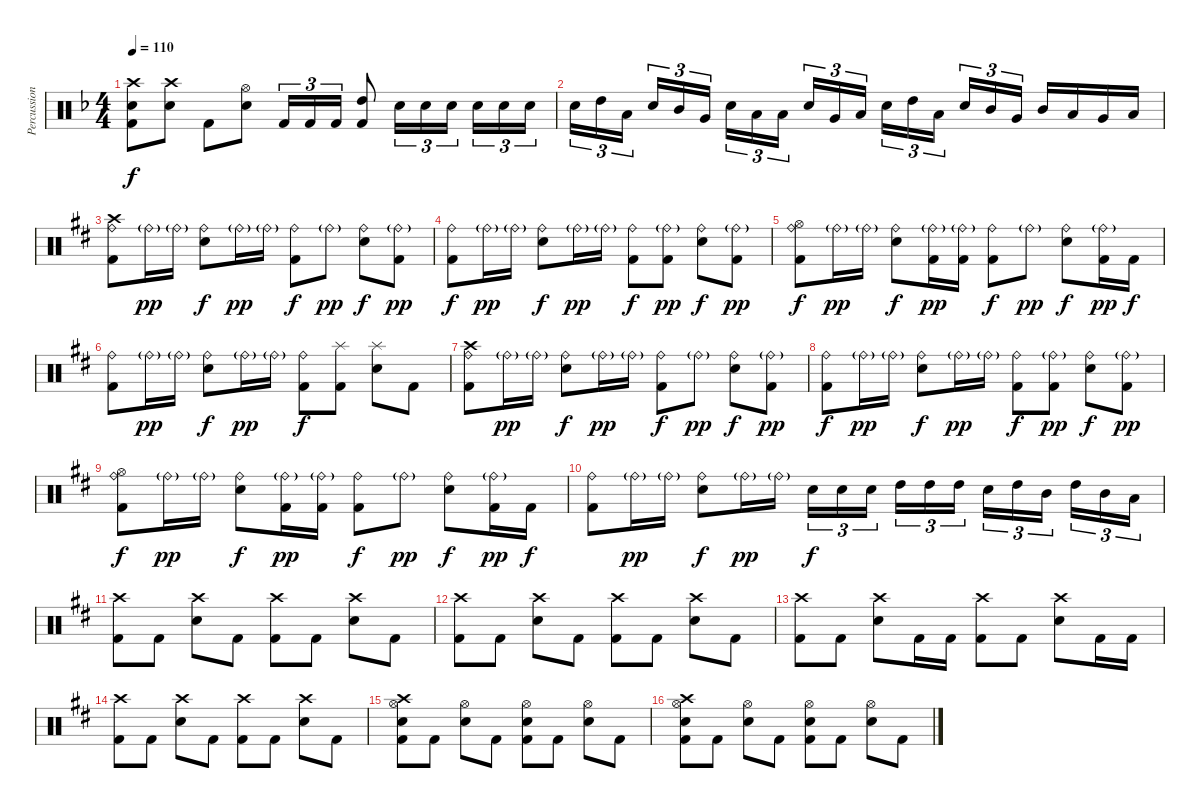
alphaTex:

\track ("Percussion" "Percussion") {instrument percussion}
\staff {score}
\articulation defaults
\ts (4 4)
\tempo 110
\clef neutral
\ks dminor
("Crash high (hit)" "Electric Snare (hit)" "Kick (hit) 2").8{dy f} ("Crash high (hit)" "Electric Snare (hit)").8 "Kick (hit) 2".8 ("Hi-Hat (open)" "Electric Snare (hit)").8 "Kick (hit) 2".16{tu (3 2)} "Kick (hit) 2".16{tu (3 2)} "Kick (hit) 2".16{tu (3 2)} ("High Tom (hit)" "Kick (hit) 2").8 "Electric Snare (hit)".16{tu (3 2)} "Electric Snare (hit)".16{tu (3 2)} "Electric Snare (hit)".16{tu (3 2)} "Electric Snare (hit)".16{tu (3 2)} "Electric Snare (hit)".16{tu (3 2)} "Electric Snare (hit)".16{tu (3 2)} |
"Electric Snare (hit)".16{tu (3 2)} "High Tom (hit)".16{tu (3 2)} "Low Tom (hit)".16{tu (3 2)} "Electric Snare (hit)".16{tu (3 2)} "Mid Tom (hit)".16{tu (3 2)} "Very Low Tom (hit)".16{tu (3 2)} "Electric Snare (hit)".16{tu (3 2)} "Low Tom (hit)".16{tu (3 2)} "Low Floor Tom (hit)".16{tu (3 2)} "Electric Snare (hit)".16{tu (3 2)} "Very Low Tom (hit)".16{tu (3 2)} "Low Floor Tom (hit)".16{tu (3 2)} "Electric Snare (hit)".16{tu (3 2)} "High Tom (hit)".16{tu (3 2)} "Low Tom (hit)".16{tu (3 2)} "Electric Snare (hit)".16{tu (3 2)} "Mid Tom (hit)".16{tu (3 2)} "Very Low Tom (hit)".16{tu (3 2)} "Mid Tom (hit)".16 "Low Tom (hit)".16 "Very Low Tom (hit)".16 "Low Floor Tom (hit)".16 |
\ks bminor
("Crash high (hit)" "Ride (bell)" "Kick (hit) 2").8 "Ride (bell)"{g}.16{dy pp} "Ride (bell)"{g}.16 ("Ride (bell)" "Electric Snare (hit)").8{dy f} "Ride (bell)"{g}.16{dy pp} "Ride (bell)"{g}.16 ("Ride (bell)" "Kick (hit) 2").8{dy f} "Ride (bell)"{g}.8{dy pp} ("Ride (bell)" "Electric Snare (hit)").8{dy f} ("Ride (bell)"{g} "Kick (hit) 2").8{dy pp} |
("Ride (bell)" "Kick (hit) 2").8{dy f} "Ride (bell)"{g}.16{dy pp} "Ride (bell)"{g}.16 ("Ride (bell)" "Electric Snare (hit)").8{dy f} "Ride (bell)"{g}.16{dy pp} "Ride (bell)"{g}.16 ("Ride (bell)" "Kick (hit) 2").8{dy f} ("Ride (bell)"{g} "Kick (hit) 2").8{dy pp} ("Ride (bell)" "Electric Snare (hit)").8{dy f} ("Ride (bell)"{g} "Kick (hit) 2").8{dy pp} |
("Hi-Hat (open)" "Ride (bell)" "Kick (hit) 2").8{dy f} "Ride (bell)"{g}.16{dy pp} "Ride (bell)"{g}.16 ("Ride (bell)" "Electric Snare (hit)").8{dy f} ("Ride (bell)"{g} "Kick (hit) 2").16{dy pp} ("Ride (bell)"{g} "Kick (hit) 2").16 ("Ride (bell)" "Kick (hit) 2").8{dy f} "Ride (bell)"{g}.8{dy pp} ("Ride (bell)" "Electric Snare (hit)").8{dy f} ("Ride (bell)"{g} "Kick (hit) 2").16{dy pp} "Kick (hit) 2".16{dy f} |
("Ride (bell)" "Kick (hit) 2").8 "Ride (bell)"{g}.16{dy pp} "Ride (bell)"{g}.16 ("Ride (bell)" "Electric Snare (hit)").8{dy f} "Ride (bell)"{g}.16{dy pp} "Ride (bell)"{g}.16 ("Ride (bell)" "Kick (hit) 2").8{dy f} ("Splash (hit)" "Kick (hit) 2").8 ("Splash (hit)" "Electric Snare (hit)").8 "Kick (hit) 2".8 |
("Crash high (hit)" "Ride (bell)" "Kick (hit) 2").8 "Ride (bell)"{g}.16{dy pp} "Ride (bell)"{g}.16 ("Ride (bell)" "Electric Snare (hit)").8{dy f} "Ride (bell)"{g}.16{dy pp} "Ride (bell)"{g}.16 ("Ride (bell)" "Kick (hit) 2").8{dy f} "Ride (bell)"{g}.8{dy pp} ("Ride (bell)" "Electric Snare (hit)").8{dy f} ("Ride (bell)"{g} "Kick (hit) 2").8{dy pp} |
("Ride (bell)" "Kick (hit) 2").8{dy f} "Ride (bell)"{g}.16{dy pp} "Ride (bell)"{g}.16 ("Ride (bell)" "Electric Snare (hit)").8{dy f} "Ride (bell)"{g}.16{dy pp} "Ride (bell)"{g}.16 ("Ride (bell)" "Kick (hit) 2").8{dy f} ("Ride (bell)"{g} "Kick (hit) 2").8{dy pp} ("Ride (bell)" "Electric Snare (hit)").8{dy f} ("Ride (bell)"{g} "Kick (hit) 2").8{dy pp} |
("Hi-Hat (open)" "Ride (bell)" "Kick (hit) 2").8{dy f} "Ride (bell)"{g}.16{dy pp} "Ride (bell)"{g}.16 ("Ride (bell)" "Electric Snare (hit)").8{dy f} ("Ride (bell)"{g} "Kick (hit) 2").16{dy pp} ("Ride (bell)"{g} "Kick (hit) 2").16 ("Ride (bell)" "Kick (hit) 2").8{dy f} "Ride (bell)"{g}.8{dy pp} ("Ride (bell)" "Electric Snare (hit)").8{dy f} ("Ride (bell)"{g} "Kick (hit) 2").16{dy pp} "Kick (hit) 2".16{dy f} |
("Ride (bell)" "Kick (hit) 2").8 "Ride (bell)"{g}.16{dy pp} "Ride (bell)"{g}.16 ("Ride (bell)" "Electric Snare (hit)").8{dy f} "Ride (bell)"{g}.16{dy pp} "Ride (bell)"{g}.16 "Electric Snare (hit)".16{tu (3 2) dy f} "Electric Snare (hit)".16{tu (3 2)} "Electric Snare (hit)".16{tu (3 2)} "High Tom (hit)".16{tu (3 2)} "High Tom (hit)".16{tu (3 2)} "High Tom (hit)".16{tu (3 2)} "Electric Snare (hit)".16{tu (3 2)} "High Tom (hit)".16{tu (3 2)} "Mid Tom (hit)".16{tu (3 2)} "High Tom (hit)".16{tu (3 2)} "Mid Tom (hit)".16{tu (3 2)} "Low Tom (hit)".16{tu (3 2)} |
("Crash high (hit)" "Kick (hit) 2").8 "Kick (hit) 2".8 ("Crash high (hit)" "Electric Snare (hit)").8 "Kick (hit) 2".8 ("Crash high (hit)" "Kick (hit) 2").8 "Kick (hit) 2".8 ("Crash high (hit)" "Electric Snare (hit)").8 "Kick (hit) 2".8 |
("Crash high (hit)" "Kick (hit) 2").8 "Kick (hit) 2".8 ("Crash high (hit)" "Electric Snare (hit)").8 "Kick (hit) 2".8 ("Crash high (hit)" "Kick (hit) 2").8 "Kick (hit) 2".8 ("Crash high (hit)" "Electric Snare (hit)").8 "Kick (hit) 2".8 |
("Crash high (hit)" "Kick (hit) 2").8 "Kick (hit) 2".8 ("Crash high (hit)" "Electric Snare (hit)").8 "Kick (hit) 2".16 "Kick (hit) 2".16 ("Crash high (hit)" "Kick (hit) 2").8 "Kick (hit) 2".8 ("Crash high (hit)" "Electric Snare (hit)").8 "Kick (hit) 2".16 "Kick (hit) 2".16 |
("Crash high (hit)" "Kick (hit) 2").8 "Kick (hit) 2".8 ("Crash high (hit)" "Electric Snare (hit)").8 "Kick (hit) 2".8 ("Crash high (hit)" "Kick (hit) 2").8 "Kick (hit) 2".8 ("Crash high (hit)" "Electric Snare (hit)").8 "Kick (hit) 2".8 |
("Crash high (hit)" "Hi-Hat (open)" "Electric Snare (hit)" "Kick (hit) 2").8 "Kick (hit) 2".8 ("Hi-Hat (open)" "Electric Snare (hit)").8 "Kick (hit) 2".8 ("Hi-Hat (open)" "Electric Snare (hit)" "Kick (hit) 2").8 "Kick (hit) 2".8 ("Hi-Hat (open)" "Electric Snare (hit)").8 "Kick (hit) 2".8 |
("Crash high (hit)" "Hi-Hat (open)" "Electric Snare (hit)" "Kick (hit) 2").8 "Kick (hit) 2".8 ("Hi-Hat (open)" "Electric Snare (hit)").8 "Kick (hit) 2".8 ("Hi-Hat (open)" "Electric Snare (hit)" "Kick (hit) 2").8 "Kick (hit) 2".8 ("Hi-Hat (open)" "Electric Snare (hit)").8 "Kick (hit) 2".8
